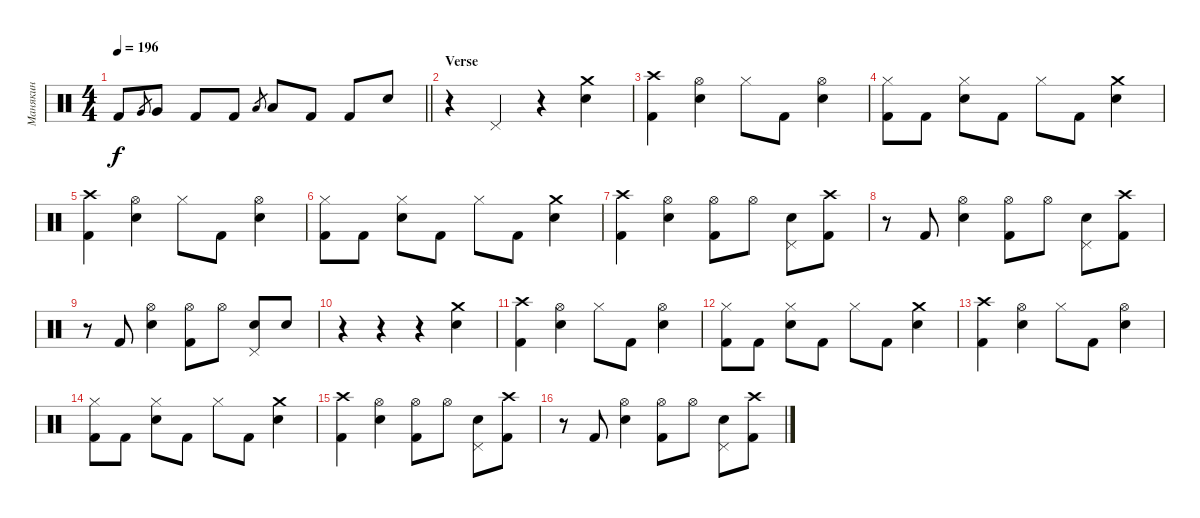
\track ("Манякин" "Манякин") {instrument percussion}
\staff {score}
\articulation defaults
\ts (4 4)
\tempo 196
\clef neutral
\barLineRight lightlight
\ks c "Kick (hit) 2".8{dy f} "Very Low Tom (hit)".8{gr} "Very Low Tom (hit)".8 "Kick (hit) 2".8 "Kick (hit) 2".8 "Low Floor Tom (hit)".8{gr} "Low Floor Tom (hit)".8 "Kick (hit) 2".8 "Kick (hit) 2".8 "Electric Snare (hit)".8
|
\section ("" "Verse")
r.4 "Pedal Hi-Hat (hit)".4 r.4 ("Crash medium (hit)" "Electric Snare (hit)").4 |
("Crash high (hit)" "Kick (hit) 2").4 ("Hi-Hat (open)" "Electric Snare (hit)").4 "Hi-Hat (closed)".8 "Kick (hit) 2".8 ("Hi-Hat (open)" "Electric Snare (hit)").4 |
("Hi-Hat (closed)" "Kick (hit) 2").8 "Kick (hit) 2".8 ("Hi-Hat (closed)" "Electric Snare (hit)").8 "Kick (hit) 2".8 "Hi-Hat (closed)".8 "Kick (hit) 2".8 ("Crash medium (hit)" "Electric Snare (hit)").4 |
("Crash high (hit)" "Kick (hit) 2").4 ("Hi-Hat (open)" "Electric Snare (hit)").4 "Hi-Hat (closed)".8 "Kick (hit) 2".8 ("Hi-Hat (open)" "Electric Snare (hit)").4 |
("Hi-Hat (closed)" "Kick (hit) 2").8 "Kick (hit) 2".8 ("Hi-Hat (closed)" "Electric Snare (hit)").8 "Kick (hit) 2".8 "Hi-Hat (closed)".8 "Kick (hit) 2".8 ("Crash medium (hit)" "Electric Snare (hit)").4 |
("Crash high (hit)" "Kick (hit) 2").4 ("Hi-Hat (open)" "Electric Snare (hit)").4 ("Hi-Hat (open)" "Kick (hit) 2").8 "Hi-Hat (open)".8 ("Electric Snare (hit)" "Pedal Hi-Hat (hit)").8 ("Crash high (hit)" "Kick (hit) 2").8 |
r.8 "Kick (hit) 2".8 ("Hi-Hat (open)" "Electric Snare (hit)").4 ("Hi-Hat (open)" "Kick (hit) 2").8 "Hi-Hat (open)".8 ("Electric Snare (hit)" "Pedal Hi-Hat (hit)").8 ("Crash high (hit)" "Kick (hit) 2").8 |
r.8 "Kick (hit) 2".8 ("Hi-Hat (open)" "Electric Snare (hit)").4 ("Hi-Hat (open)" "Kick (hit) 2").8 "Hi-Hat (open)".8 ("Electric Snare (hit)" "Pedal Hi-Hat (hit)").8 "Electric Snare (hit)".8 |
r.4 r.4 r.4 ("Crash medium (hit)" "Electric Snare (hit)").4 |
("Crash high (hit)" "Kick (hit) 2").4 ("Hi-Hat (open)" "Electric Snare (hit)").4 "Hi-Hat (closed)".8 "Kick (hit) 2".8 ("Hi-Hat (open)" "Electric Snare (hit)").4 |
("Hi-Hat (closed)" "Kick (hit) 2").8 "Kick (hit) 2".8 ("Hi-Hat (closed)" "Electric Snare (hit)").8 "Kick (hit) 2".8 "Hi-Hat (closed)".8 "Kick (hit) 2".8 ("Crash medium (hit)" "Electric Snare (hit)").4 |
("Crash high (hit)" "Kick (hit) 2").4 ("Hi-Hat (open)" "Electric Snare (hit)").4 "Hi-Hat (closed)".8 "Kick (hit) 2".8 ("Hi-Hat (open)" "Electric Snare (hit)").4 |
("Hi-Hat (closed)" "Kick (hit) 2").8 "Kick (hit) 2".8 ("Hi-Hat (closed)" "Electric Snare (hit)").8 "Kick (hit) 2".8 "Hi-Hat (closed)".8 "Kick (hit) 2".8 ("Crash medium (hit)" "Electric Snare (hit)").4 |
("Crash high (hit)" "Kick (hit) 2").4 ("Hi-Hat (open)" "Electric Snare (hit)").4 ("Hi-Hat (open)" "Kick (hit) 2").8 "Hi-Hat (open)".8 ("Electric Snare (hit)" "Pedal Hi-Hat (hit)").8 ("Crash high (hit)" "Kick (hit) 2").8 |
r.8 "Kick (hit) 2".8 ("Hi-Hat (open)" "Electric Snare (hit)").4 ("Hi-Hat (open)" "Kick (hit) 2").8 "Hi-Hat (open)".8 ("Electric Snare (hit)" "Pedal Hi-Hat (hit)").8 ("Crash high (hit)" "Kick (hit) 2").8
